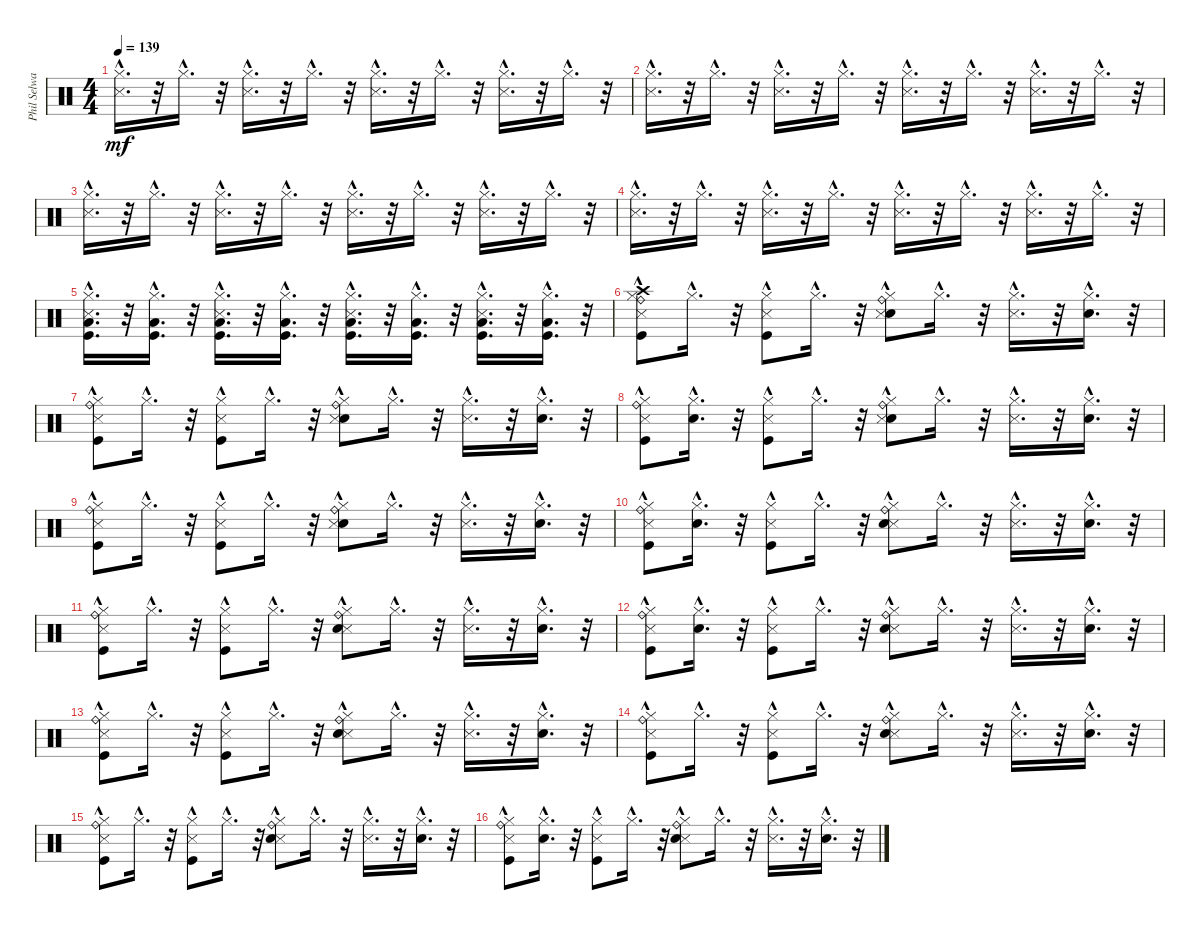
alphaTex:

\track ("Phil Selway - Drums" "Phil Selwa") {instrument percussion}
\staff {score}
\articulation defaults
\ts (4 4)
\tempo 139
\clef neutral
\ks c
("Hi-Hat (closed)"{hac} "Snare (side stick) 3"{hac}).16{d dy mf} r.32 "Hi-Hat (closed)"{hac}.16{d} r.32 ("Hi-Hat (closed)"{hac} "Snare (side stick) 3"{hac}).16{d} r.32 "Hi-Hat (closed)"{hac}.16{d} r.32 ("Hi-Hat (closed)"{hac} "Snare (side stick) 3"{hac}).16{d} r.32 "Hi-Hat (closed)"{hac}.16{d} r.32 ("Hi-Hat (closed)"{hac} "Snare (side stick) 3"{hac}).16{d} r.32 "Hi-Hat (closed)"{hac}.16{d} r.32 |
("Hi-Hat (closed)"{hac} "Snare (side stick) 3"{hac}).16{d} r.32 "Hi-Hat (closed)"{hac}.16{d} r.32 ("Hi-Hat (closed)"{hac} "Snare (side stick) 3"{hac}).16{d} r.32 "Hi-Hat (closed)"{hac}.16{d} r.32 ("Hi-Hat (closed)"{hac} "Snare (side stick) 3"{hac}).16{d} r.32 "Hi-Hat (closed)"{hac}.16{d} r.32 ("Hi-Hat (closed)"{hac} "Snare (side stick) 3"{hac}).16{d} r.32 "Hi-Hat (closed)"{hac}.16{d} r.32 |
("Snare (side stick) 3"{hac} "Hi-Hat (closed)"{hac}).16{d} r.32 "Hi-Hat (closed)"{hac}.16{d} r.32 ("Snare (side stick) 3"{hac} "Hi-Hat (closed)"{hac}).16{d} r.32 "Hi-Hat (closed)"{hac}.16{d} r.32 ("Snare (side stick) 3"{hac} "Hi-Hat (closed)"{hac}).16{d} r.32 "Hi-Hat (closed)"{hac}.16{d} r.32 ("Snare (side stick) 3"{hac} "Hi-Hat (closed)"{hac}).16{d} r.32 "Hi-Hat (closed)"{hac}.16{d} r.32 |
("Snare (side stick) 3"{hac} "Hi-Hat (closed)"{hac}).16{d} r.32 "Hi-Hat (closed)"{hac}.16{d} r.32 ("Snare (side stick) 3"{hac} "Hi-Hat (closed)"{hac}).16{d} r.32 "Hi-Hat (closed)"{hac}.16{d} r.32 ("Snare (side stick) 3"{hac} "Hi-Hat (closed)"{hac}).16{d} r.32 "Hi-Hat (closed)"{hac}.16{d} r.32 ("Snare (side stick) 3"{hac} "Hi-Hat (closed)"{hac}).16{d} r.32 "Hi-Hat (closed)"{hac}.16{d} r.32 |
("Low Floor Tom (hit)"{hac} "Kick (hit)"{hac} "Snare (side stick) 3"{hac} "Hi-Hat (closed)"{hac}).16{d} r.32 ("Low Floor Tom (hit)"{hac} "Kick (hit)"{hac} "Hi-Hat (closed)"{hac}).16{d} r.32 ("Low Floor Tom (hit)"{hac} "Kick (hit)"{hac} "Snare (side stick) 3"{hac} "Hi-Hat (closed)"{hac}).16{d} r.32 ("Low Floor Tom (hit)"{hac} "Kick (hit)"{hac} "Hi-Hat (closed)"{hac}).16{d} r.32 ("Low Floor Tom (hit)"{hac} "Kick (hit)"{hac} "Snare (side stick) 3"{hac} "Hi-Hat (closed)"{hac}).16{d} r.32 ("Low Floor Tom (hit)"{hac} "Kick (hit)"{hac} "Hi-Hat (closed)"{hac}).16{d} r.32 ("Low Floor Tom (hit)"{hac} "Kick (hit)"{hac} "Snare (side stick) 3"{hac} "Hi-Hat (closed)"{hac}).16{d} r.32 ("Low Floor Tom (hit)"{hac} "Kick (hit)"{hac} "Hi-Hat (closed)"{hac}).16{d} r.32 |
("Ride (bell)"{hac} "Kick (hit)"{hac} "Crash high (hit)"{hac} "Hi-Hat (closed)"{hac} "Snare (side stick) 3"{hac}).8 "Hi-Hat (closed)"{hac}.16{d} r.32 ("Kick (hit)"{hac} "Hi-Hat (closed)"{hac} "Snare (side stick) 3"{hac}).8 "Hi-Hat (closed)"{hac}.16{d} r.32 ("Ride (bell)"{hac} "Snare (hit) 2"{hac} "Hi-Hat (closed)"{hac} "Snare (side stick) 3"{hac}).8 "Hi-Hat (closed)"{hac}.16{d} r.32 ("Hi-Hat (closed)"{hac} "Snare (side stick) 3"{hac}).16{d} r.32 ("Snare (hit) 2"{hac} "Hi-Hat (closed)"{hac}).16{d} r.32 |
("Ride (bell)"{hac} "Kick (hit)"{hac} "Snare (side stick) 3"{hac} "Hi-Hat (closed)"{hac}).8 "Hi-Hat (closed)"{hac}.16{d} r.32 ("Kick (hit)"{hac} "Snare (side stick) 3"{hac} "Hi-Hat (closed)"{hac}).8 "Hi-Hat (closed)"{hac}.16{d} r.32 ("Ride (bell)"{hac} "Snare (hit) 2"{hac} "Snare (side stick) 3"{hac} "Hi-Hat (closed)"{hac}).8 "Hi-Hat (closed)"{hac}.16{d} r.32 ("Snare (side stick) 3"{hac} "Hi-Hat (closed)"{hac}).16{d} r.32 ("Snare (hit) 2"{hac} "Hi-Hat (closed)"{hac}).16{d} r.32 |
("Ride (bell)"{hac} "Kick (hit)"{hac} "Snare (side stick) 3"{hac} "Hi-Hat (closed)"{hac}).8 ("Snare (hit) 2"{hac} "Hi-Hat (closed)"{hac}).16{d} r.32 ("Kick (hit)"{hac} "Snare (side stick) 3"{hac} "Hi-Hat (closed)"{hac}).8 "Hi-Hat (closed)"{hac}.16{d} r.32 ("Ride (bell)"{hac} "Snare (hit) 2"{hac} "Snare (side stick) 3"{hac} "Hi-Hat (closed)"{hac}).8 "Hi-Hat (closed)"{hac}.16{d} r.32 ("Snare (side stick) 3"{hac} "Hi-Hat (closed)"{hac}).16{d} r.32 ("Snare (hit) 2"{hac} "Hi-Hat (closed)"{hac}).16{d} r.32 |
("Ride (bell)"{hac} "Kick (hit)"{hac} "Snare (side stick) 3"{hac} "Hi-Hat (closed)"{hac}).8 "Hi-Hat (closed)"{hac}.16{d} r.32 ("Kick (hit)"{hac} "Snare (side stick) 3"{hac} "Hi-Hat (closed)"{hac}).8 "Hi-Hat (closed)"{hac}.16{d} r.32 ("Ride (bell)"{hac} "Snare (hit) 2"{hac} "Snare (side stick) 3"{hac} "Hi-Hat (closed)"{hac}).8 "Hi-Hat (closed)"{hac}.16{d} r.32 ("Snare (side stick) 3"{hac} "Hi-Hat (closed)"{hac}).16{d} r.32 ("Snare (hit) 2"{hac} "Hi-Hat (closed)"{hac}).16{d} r.32 |
("Hi-Hat (closed)"{hac} "Snare (side stick) 3"{hac} "Kick (hit)"{hac} "Ride (bell)"{hac}).8 ("Hi-Hat (closed)"{hac} "Snare (hit) 2"{hac}).16{d} r.32 ("Hi-Hat (closed)"{hac} "Snare (side stick) 3"{hac} "Kick (hit)"{hac}).8 "Hi-Hat (closed)"{hac}.16{d} r.32 ("Hi-Hat (closed)"{hac} "Snare (side stick) 3"{hac} "Snare (hit) 2"{hac} "Ride (bell)"{hac}).8 "Hi-Hat (closed)"{hac}.16{d} r.32 ("Hi-Hat (closed)"{hac} "Snare (side stick) 3"{hac}).16{d} r.32 ("Hi-Hat (closed)"{hac} "Snare (hit) 2"{hac}).16{d} r.32 |
("Hi-Hat (closed)"{hac} "Snare (side stick) 3"{hac} "Kick (hit)"{hac} "Ride (bell)"{hac}).8 "Hi-Hat (closed)"{hac}.16{d} r.32 ("Hi-Hat (closed)"{hac} "Snare (side stick) 3"{hac} "Kick (hit)"{hac}).8 "Hi-Hat (closed)"{hac}.16{d} r.32 ("Hi-Hat (closed)"{hac} "Snare (side stick) 3"{hac} "Snare (hit) 2"{hac} "Ride (bell)"{hac}).8 "Hi-Hat (closed)"{hac}.16{d} r.32 ("Hi-Hat (closed)"{hac} "Snare (side stick) 3"{hac}).16{d} r.32 ("Hi-Hat (closed)"{hac} "Snare (hit) 2"{hac}).16{d} r.32 |
("Hi-Hat (closed)"{hac} "Snare (side stick) 3"{hac} "Kick (hit)"{hac} "Ride (bell)"{hac}).8 ("Hi-Hat (closed)"{hac} "Snare (hit) 2"{hac}).16{d} r.32 ("Hi-Hat (closed)"{hac} "Snare (side stick) 3"{hac} "Kick (hit)"{hac}).8 "Hi-Hat (closed)"{hac}.16{d} r.32 ("Hi-Hat (closed)"{hac} "Snare (side stick) 3"{hac} "Snare (hit) 2"{hac} "Ride (bell)"{hac}).8 "Hi-Hat (closed)"{hac}.16{d} r.32 ("Hi-Hat (closed)"{hac} "Snare (side stick) 3"{hac}).16{d} r.32 ("Hi-Hat (closed)"{hac} "Snare (hit) 2"{hac}).16{d} r.32 |
("Hi-Hat (closed)"{hac} "Snare (side stick) 3"{hac} "Kick (hit)"{hac} "Ride (bell)"{hac}).8 "Hi-Hat (closed)"{hac}.16{d} r.32 ("Hi-Hat (closed)"{hac} "Snare (side stick) 3"{hac} "Kick (hit)"{hac}).8 "Hi-Hat (closed)"{hac}.16{d} r.32 ("Hi-Hat (closed)"{hac} "Snare (side stick) 3"{hac} "Snare (hit) 2"{hac} "Ride (bell)"{hac}).8 "Hi-Hat (closed)"{hac}.16{d} r.32 ("Hi-Hat (closed)"{hac} "Snare (side stick) 3"{hac}).16{d} r.32 ("Hi-Hat (closed)"{hac} "Snare (hit) 2"{hac}).16{d} r.32 |
("Snare (side stick) 3"{hac} "Hi-Hat (closed)"{hac} "Kick (hit)"{hac} "Ride (bell)"{hac}).8 "Hi-Hat (closed)"{hac}.16{d} r.32 ("Snare (side stick) 3"{hac} "Hi-Hat (closed)"{hac} "Kick (hit)"{hac}).8 "Hi-Hat (closed)"{hac}.16{d} r.32 ("Snare (side stick) 3"{hac} "Hi-Hat (closed)"{hac} "Snare (hit) 2"{hac} "Ride (bell)"{hac}).8 "Hi-Hat (closed)"{hac}.16{d} r.32 ("Snare (side stick) 3"{hac} "Hi-Hat (closed)"{hac}).16{d} r.32 ("Hi-Hat (closed)"{hac} "Snare (hit) 2"{hac}).16{d} r.32 |
("Hi-Hat (closed)"{hac} "Snare (side stick) 3"{hac} "Kick (hit)"{hac} "Ride (bell)"{hac}).8 "Hi-Hat (closed)"{hac}.16{d} r.32 ("Hi-Hat (closed)"{hac} "Snare (side stick) 3"{hac} "Kick (hit)"{hac}).8 "Hi-Hat (closed)"{hac}.16{d} r.32 ("Hi-Hat (closed)"{hac} "Snare (side stick) 3"{hac} "Snare (hit) 2"{hac} "Ride (bell)"{hac}).8 "Hi-Hat (closed)"{hac}.16{d} r.32 ("Hi-Hat (closed)"{hac} "Snare (side stick) 3"{hac}).16{d} r.32 ("Hi-Hat (closed)"{hac} "Snare (hit) 2"{hac}).16{d} r.32 |
("Hi-Hat (closed)"{hac} "Snare (side stick) 3"{hac} "Kick (hit)"{hac} "Ride (bell)"{hac}).8 ("Hi-Hat (closed)"{hac} "Snare (hit) 2"{hac}).16{d} r.32 ("Hi-Hat (closed)"{hac} "Snare (side stick) 3"{hac} "Kick (hit)"{hac}).8 "Hi-Hat (closed)"{hac}.16{d} r.32 ("Hi-Hat (closed)"{hac} "Snare (side stick) 3"{hac} "Snare (hit) 2"{hac} "Ride (bell)"{hac}).8 "Hi-Hat (closed)"{hac}.16{d} r.32 ("Hi-Hat (closed)"{hac} "Snare (side stick) 3"{hac}).16{d} r.32 ("Hi-Hat (closed)"{hac} "Snare (hit) 2"{hac}).16{d} r.32
